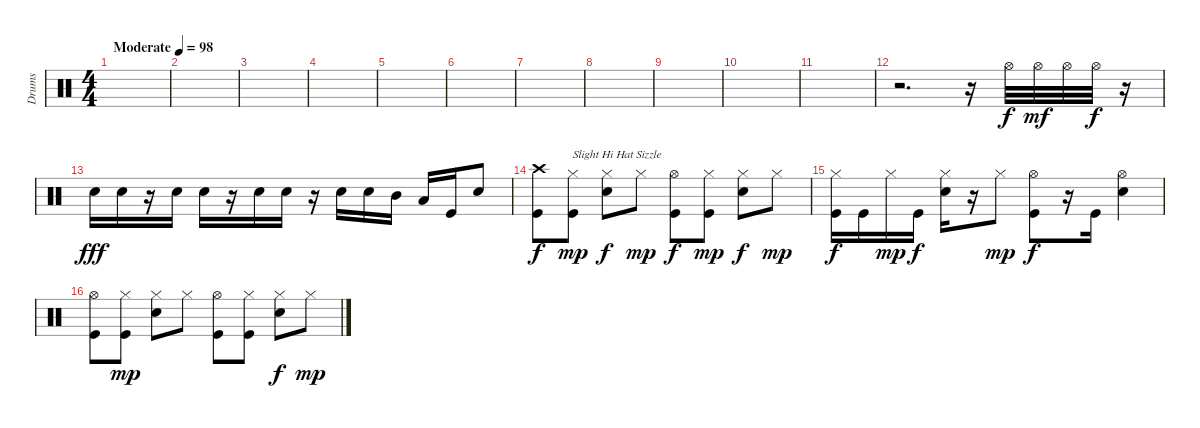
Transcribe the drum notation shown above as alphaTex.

\track ("Drums" "Drums") {instrument percussion}
\staff {score}
\articulation defaults
\ts (4 4)
\tempo (98 "Moderate")
\clef neutral
\ks c
|
|
|
|
|
|
|
|
|
|
|
r.2{d} r.16 "Hi-Hat (open)".32 "Hi-Hat (open)".32{dy mf} "Hi-Hat (open)".32 "Hi-Hat (open)".32{dy f} r.16 |
"Snare (hit) 2".16{dy fff} "Snare (hit) 2".16 r.16 "Snare (hit) 2".16 "Snare (hit) 2".16 r.16 "Snare (hit) 2".16 "Snare (hit) 2".16 r.16 "Snare (hit) 2".16 "Snare (hit) 2".16 "Mid Tom (hit)".16 "Low Tom (hit)".16 "Kick (hit)".16 "Snare (hit) 2".8 |
("Crash high (hit)" "Kick (hit)").8{dy f} ("Hi-Hat (closed)" "Kick (hit)").8{txt "Slight Hi Hat Sizzle" dy mp} ("Hi-Hat (closed)" "Snare (hit) 2").8{dy f} "Hi-Hat (closed)".8{dy mp} ("Hi-Hat (open)" "Kick (hit)").8{dy f} ("Hi-Hat (closed)" "Kick (hit)").8{dy mp} ("Hi-Hat (closed)" "Snare (hit) 2").8{dy f} "Hi-Hat (closed)".8{dy mp} |
("Hi-Hat (closed)" "Kick (hit)").16{dy f} "Kick (hit)".16 "Hi-Hat (closed)".16{dy mp} "Kick (hit)".16{dy f} ("Hi-Hat (closed)" "Snare (hit) 2").16 r.16 "Hi-Hat (closed)".8{dy mp} ("Hi-Hat (open)" "Kick (hit)").8{dy f} r.16 "Kick (hit)".16 ("Hi-Hat (open)" "Snare (hit) 2").4 |
("Hi-Hat (open)" "Kick (hit)").8 ("Hi-Hat (closed)" "Kick (hit)").8{dy mp} ("Hi-Hat (closed)" "Snare (hit) 2").8 "Hi-Hat (closed)".8 ("Hi-Hat (open)" "Kick (hit)").8 ("Hi-Hat (closed)" "Kick (hit)").8 ("Hi-Hat (closed)" "Snare (hit) 2").8{dy f} "Hi-Hat (closed)".8{dy mp}
